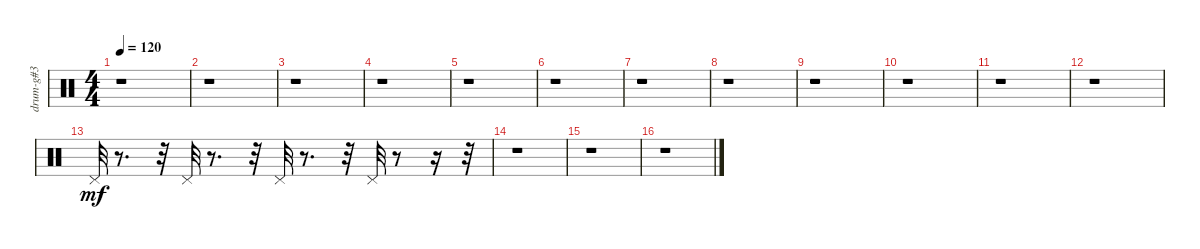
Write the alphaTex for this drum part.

\track ("drum-g#3" "drum-g#3") {instrument percussion}
\staff {score}
\articulation defaults
\ts (4 4)
\tempo 120
\clef neutral
\ks c
r.1{dy mf} |
r.1 |
r.1 |
r.1 |
r.1 |
r.1 |
r.1 |
r.1 |
r.1 |
r.1 |
r.1 |
r.1 |
"Pedal Hi-Hat (hit)".32 r.8{d} r.32 "Pedal Hi-Hat (hit)".32 r.8{d} r.32 "Pedal Hi-Hat (hit)".32 r.8{d} r.32 "Pedal Hi-Hat (hit)".32 r.8 r.16 r.32 |
r.1 |
r.1 |
r.1
